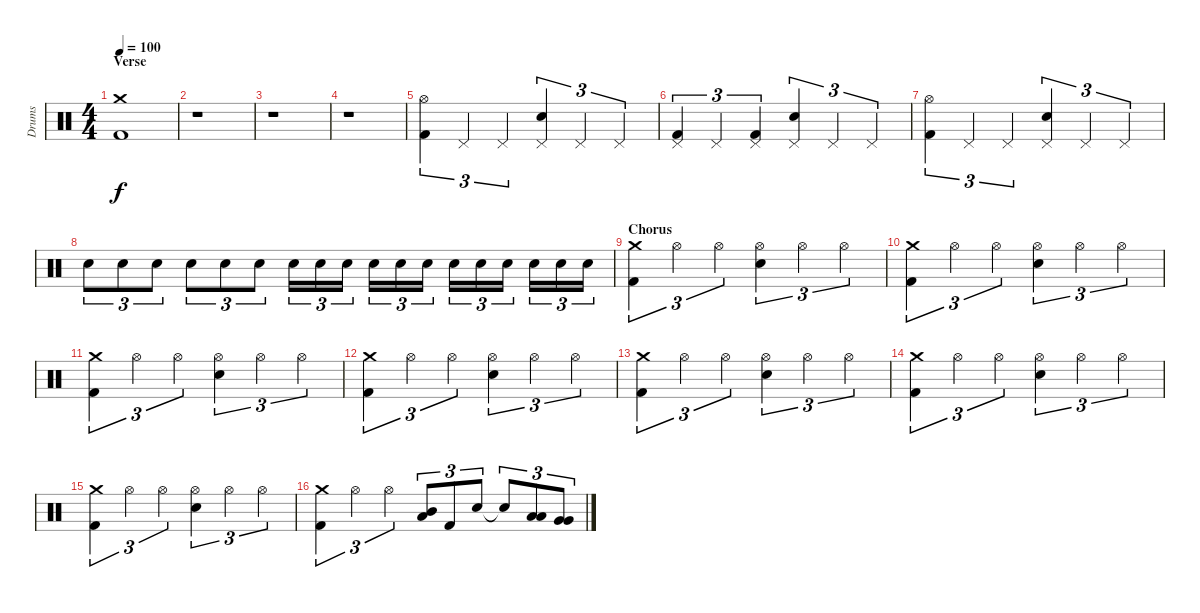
\track ("Drums" "Drums") {instrument percussion}
\staff {score}
\articulation defaults
\ts (4 4)
\section ("" "Verse")
\tempo 100
\clef neutral
\ks c
("Crash medium (hit)" "Kick (hit) 2").1{dy f} |
r.1 |
r.1 |
r.1 |
("Hi-Hat (open)" "Kick (hit) 2").4{tu (3 2)} "Pedal Hi-Hat (hit)".4{tu (3 2)} "Pedal Hi-Hat (hit)".4{tu (3 2)} ("Pedal Hi-Hat (hit)" "Electric Snare (hit)").4{tu (3 2)} "Pedal Hi-Hat (hit)".4{tu (3 2)} "Pedal Hi-Hat (hit)".4{tu (3 2)} |
("Pedal Hi-Hat (hit)" "Kick (hit) 2").4{tu (3 2)} "Pedal Hi-Hat (hit)".4{tu (3 2)} ("Pedal Hi-Hat (hit)" "Kick (hit) 2").4{tu (3 2)} ("Pedal Hi-Hat (hit)" "Electric Snare (hit)").4{tu (3 2)} "Pedal Hi-Hat (hit)".4{tu (3 2)} "Pedal Hi-Hat (hit)".4{tu (3 2)} |
("Hi-Hat (open)" "Kick (hit) 2").4{tu (3 2)} "Pedal Hi-Hat (hit)".4{tu (3 2)} "Pedal Hi-Hat (hit)".4{tu (3 2)} ("Pedal Hi-Hat (hit)" "Electric Snare (hit)").4{tu (3 2)} "Pedal Hi-Hat (hit)".4{tu (3 2)} "Pedal Hi-Hat (hit)".4{tu (3 2)} |
"Electric Snare (hit)".8{tu (3 2)} "Electric Snare (hit)".8{tu (3 2)} "Electric Snare (hit)".8{tu (3 2)} "Electric Snare (hit)".8{tu (3 2)} "Electric Snare (hit)".8{tu (3 2)} "Electric Snare (hit)".8{tu (3 2)} "Electric Snare (hit)".16{tu (3 2)} "Electric Snare (hit)".16{tu (3 2)} "Electric Snare (hit)".16{tu (3 2)} "Electric Snare (hit)".16{tu (3 2)} "Electric Snare (hit)".16{tu (3 2)} "Electric Snare (hit)".16{tu (3 2)} "Electric Snare (hit)".16{tu (3 2)} "Electric Snare (hit)".16{tu (3 2)} "Electric Snare (hit)".16{tu (3 2)} "Electric Snare (hit)".16{tu (3 2)} "Electric Snare (hit)".16{tu (3 2)} "Electric Snare (hit)".16{tu (3 2)} |
\section ("" "Chorus")
("Crash medium (hit)" "Kick (hit) 2").4{tu (3 2)} "Hi-Hat (open)".4{tu (3 2)} "Hi-Hat (open)".4{tu (3 2)} ("Hi-Hat (open)" "Electric Snare (hit)").4{tu (3 2)} "Hi-Hat (open)".4{tu (3 2)} "Hi-Hat (open)".4{tu (3 2)} |
("Crash medium (hit)" "Kick (hit) 2").4{tu (3 2)} "Hi-Hat (open)".4{tu (3 2)} "Hi-Hat (open)".4{tu (3 2)} ("Hi-Hat (open)" "Electric Snare (hit)").4{tu (3 2)} "Hi-Hat (open)".4{tu (3 2)} "Hi-Hat (open)".4{tu (3 2)} |
("Crash medium (hit)" "Kick (hit) 2").4{tu (3 2)} "Hi-Hat (open)".4{tu (3 2)} "Hi-Hat (open)".4{tu (3 2)} ("Hi-Hat (open)" "Electric Snare (hit)").4{tu (3 2)} "Hi-Hat (open)".4{tu (3 2)} "Hi-Hat (open)".4{tu (3 2)} |
("Crash medium (hit)" "Kick (hit) 2").4{tu (3 2)} "Hi-Hat (open)".4{tu (3 2)} "Hi-Hat (open)".4{tu (3 2)} ("Hi-Hat (open)" "Electric Snare (hit)").4{tu (3 2)} "Hi-Hat (open)".4{tu (3 2)} "Hi-Hat (open)".4{tu (3 2)} |
("Crash medium (hit)" "Kick (hit) 2").4{tu (3 2)} "Hi-Hat (open)".4{tu (3 2)} "Hi-Hat (open)".4{tu (3 2)} ("Hi-Hat (open)" "Electric Snare (hit)").4{tu (3 2)} "Hi-Hat (open)".4{tu (3 2)} "Hi-Hat (open)".4{tu (3 2)} |
("Crash medium (hit)" "Kick (hit) 2").4{tu (3 2)} "Hi-Hat (open)".4{tu (3 2)} "Hi-Hat (open)".4{tu (3 2)} ("Hi-Hat (open)" "Electric Snare (hit)").4{tu (3 2)} "Hi-Hat (open)".4{tu (3 2)} "Hi-Hat (open)".4{tu (3 2)} |
("Crash medium (hit)" "Kick (hit) 2").4{tu (3 2)} "Hi-Hat (open)".4{tu (3 2)} "Hi-Hat (open)".4{tu (3 2)} ("Hi-Hat (open)" "Electric Snare (hit)").4{tu (3 2)} "Hi-Hat (open)".4{tu (3 2)} "Hi-Hat (open)".4{tu (3 2)} |
("Crash medium (hit)" "Kick (hit) 2").4{tu (3 2)} "Hi-Hat (open)".4{tu (3 2)} "Hi-Hat (open)".4{tu (3 2)} ("Low Tom (hit)" "Mid Tom (hit)").8{tu (3 2)} "Kick (hit) 2".8{tu (3 2)} "Electric Snare (hit)".8{tu (3 2)} "Electric Snare (hit)"{t}.8{tu (3 2)} ("Low Tom (hit)" "Low Tom (hit)").8{tu (3 2)} ("Very Low Tom (hit)" "Very Low Tom (hit)").8{tu (3 2)}
